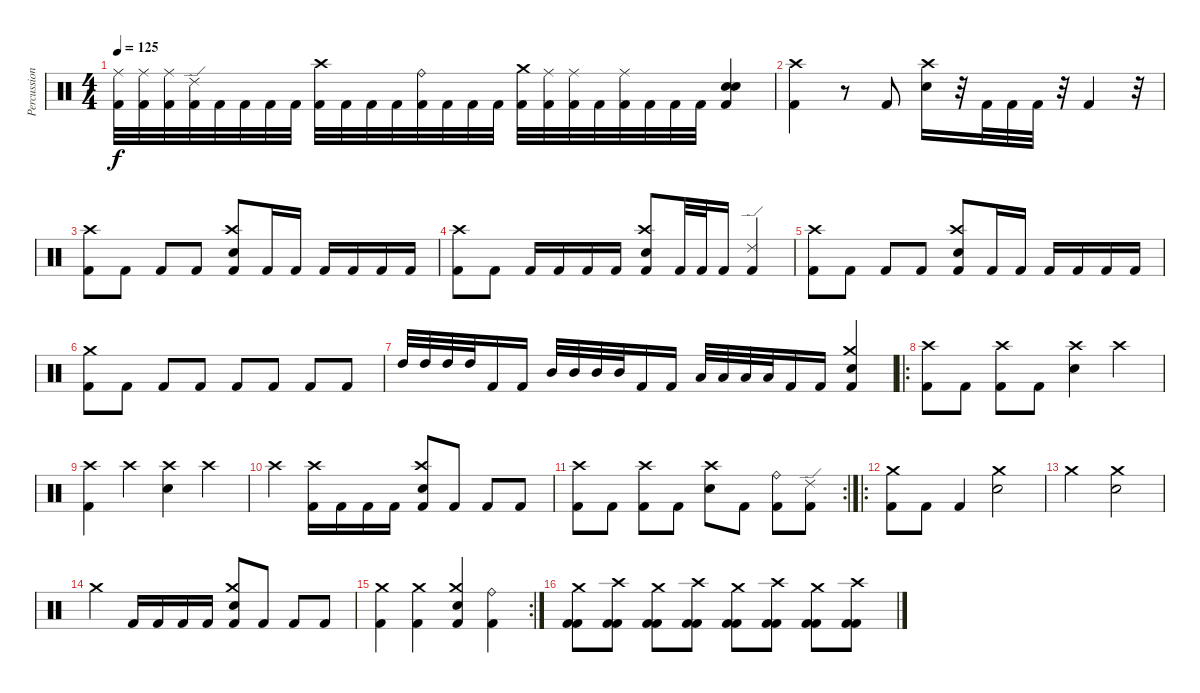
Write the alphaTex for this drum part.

\track ("Percussion" "Percussion") {instrument percussion}
\staff {score}
\articulation defaults
\ts (4 4)
\tempo 125
\clef neutral
\ks c
("Kick (hit) 2" "Ride (middle)").32{dy f} ("Kick (hit) 2" "Ride (middle)").32 ("Kick (hit) 2" "Ride (middle)").32 ("Kick (hit) 2" "Ride (edge) 2").32 "Kick (hit) 2".32 "Kick (hit) 2".32 "Kick (hit) 2".32 "Kick (hit) 2".32 ("Kick (hit) 2" "Crash high (hit)").32 "Kick (hit) 2".32 "Kick (hit) 2".32 "Kick (hit) 2".32 ("Kick (hit) 2" "Ride (bell)").32 "Kick (hit) 2".32 "Kick (hit) 2".32 "Kick (hit) 2".32 ("Kick (hit) 2" "Crash medium (hit)").32 ("Kick (hit) 2" "Ride (middle)").32 ("Kick (hit) 2" "Ride (middle)").32 "Kick (hit) 2".32 ("Kick (hit) 2" "Ride (middle)").32 "Kick (hit) 2".32 "Kick (hit) 2".32 "Kick (hit) 2".32 ("Kick (hit) 2" "Electric Snare (hit)" "Electric Snare (hit)").4 |
("Crash high (hit)" "Kick (hit) 2").4 r.8 "Kick (hit) 2".8 ("Crash high (hit)" "Electric Snare (hit)").16 r.32 "Kick (hit) 2".32 "Kick (hit) 2".32 "Kick (hit) 2".32 r.32 "Kick (hit) 2".4 r.32 |
("Crash high (hit)" "Kick (hit) 2").8 "Kick (hit) 2".8 "Kick (hit) 2".8 "Kick (hit) 2".8 ("Crash high (hit)" "Electric Snare (hit)" "Kick (hit) 2").8 "Kick (hit) 2".16 "Kick (hit) 2".16 "Kick (hit) 2".16 "Kick (hit) 2".16 "Kick (hit) 2".16 "Kick (hit) 2".16 |
("Crash high (hit)" "Kick (hit) 2").8 "Kick (hit) 2".8 "Kick (hit) 2".16 "Kick (hit) 2".16 "Kick (hit) 2".16 "Kick (hit) 2".16 ("Crash high (hit)" "Electric Snare (hit)" "Kick (hit) 2").8 "Kick (hit) 2".32 "Kick (hit) 2".32 "Kick (hit) 2".16 ("Ride (edge) 2" "Kick (hit) 2").4 |
("Crash high (hit)" "Kick (hit) 2").8 "Kick (hit) 2".8 "Kick (hit) 2".8 "Kick (hit) 2".8 ("Crash high (hit)" "Electric Snare (hit)" "Kick (hit) 2").8 "Kick (hit) 2".16 "Kick (hit) 2".16 "Kick (hit) 2".16 "Kick (hit) 2".16 "Kick (hit) 2".16 "Kick (hit) 2".16 |
("Crash medium (hit)" "Kick (hit) 2").8 "Kick (hit) 2".8 "Kick (hit) 2".8 "Kick (hit) 2".8 "Kick (hit) 2".8 "Kick (hit) 2".8 "Kick (hit) 2".8 "Kick (hit) 2".8 |
"High Tom (hit)".32 "High Tom (hit)".32 "High Tom (hit)".32 "High Tom (hit)".32 "Kick (hit) 2".16 "Kick (hit) 2".16 "Mid Tom (hit)".32 "Mid Tom (hit)".32 "Mid Tom (hit)".32 "Mid Tom (hit)".32 "Kick (hit) 2".16 "Kick (hit) 2".16 "Low Tom (hit)".32 "Low Tom (hit)".32 "Low Tom (hit)".32 "Low Tom (hit)".32 "Kick (hit) 2".16 "Kick (hit) 2".16 ("Electric Snare (hit)" "Crash medium (hit)" "Kick (hit) 2").4 |
\ro
("Crash high (hit)" "Kick (hit) 2").8 "Kick (hit) 2".8 ("Crash high (hit)" "Kick (hit) 2").8 "Kick (hit) 2".8 ("Crash high (hit)" "Electric Snare (hit)").4 "Crash high (hit)".4 |
("Crash high (hit)" "Kick (hit) 2").4 "Crash high (hit)".4 ("Crash high (hit)" "Electric Snare (hit)").4 "Crash high (hit)".4 |
"Crash high (hit)".4 ("Crash high (hit)" "Kick (hit) 2").16 "Kick (hit) 2".16 "Kick (hit) 2".16 "Kick (hit) 2".16 ("Crash high (hit)" "Electric Snare (hit)" "Kick (hit) 2").8 "Kick (hit) 2".8 "Kick (hit) 2".8 "Kick (hit) 2".8 |
\rc 2
("Crash high (hit)" "Kick (hit) 2").8 "Kick (hit) 2".8 ("Crash high (hit)" "Kick (hit) 2").8 "Kick (hit) 2".8 ("Crash high (hit)" "Electric Snare (hit)").8 "Kick (hit) 2".8 ("Ride (bell)" "Kick (hit) 2").8 ("Ride (edge) 2" "Kick (hit) 2").8 |
\ro
("Crash medium (hit)" "Kick (hit) 2").8 "Kick (hit) 2".8 "Kick (hit) 2".4 ("Crash medium (hit)" "Electric Snare (hit)").2 |
"Crash medium (hit)".2 ("Crash medium (hit)" "Electric Snare (hit)").2 |
"Crash medium (hit)".4 "Kick (hit) 2".16 "Kick (hit) 2".16 "Kick (hit) 2".16 "Kick (hit) 2".16 ("Electric Snare (hit)" "Crash medium (hit)" "Kick (hit) 2").8 "Kick (hit) 2".8 "Kick (hit) 2".8 "Kick (hit) 2".8 |
\rc 2
("Crash medium (hit)" "Kick (hit) 2").4 ("Crash medium (hit)" "Kick (hit) 2").4 ("Crash medium (hit)" "Electric Snare (hit)" "Kick (hit) 2").4 ("Ride (bell)" "Kick (hit) 2").4 |
("Crash medium (hit)" "Kick (hit) 2" "Kick (hit) 2").8 ("Crash high (hit)" "Kick (hit) 2" "Kick (hit) 2").8 ("Crash medium (hit)" "Kick (hit) 2" "Kick (hit) 2").8 ("Crash high (hit)" "Kick (hit) 2" "Kick (hit) 2").8 ("Crash medium (hit)" "Kick (hit) 2" "Kick (hit) 2").8 ("Crash high (hit)" "Kick (hit) 2" "Kick (hit) 2").8 ("Crash medium (hit)" "Kick (hit) 2" "Kick (hit) 2").8 ("Crash high (hit)" "Kick (hit) 2" "Kick (hit) 2").8
